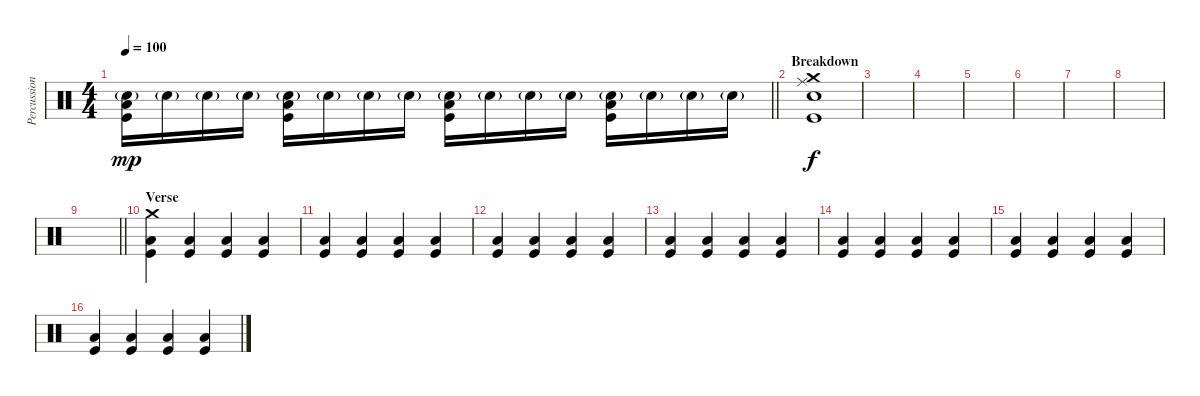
\track ("Percussion" "Percussion") {instrument percussion}
\staff {score}
\articulation defaults
\ts (4 4)
\tempo 100
\clef neutral
\barLineRight lightlight
\ks c
("Snare (hit) 2"{g} "Kick (hit)" "Low Floor Tom (hit)").16{dy mp} "Snare (hit) 2"{g}.16 "Snare (hit) 2"{g}.16 "Snare (hit) 2"{g}.16 ("Snare (hit) 2"{g} "Kick (hit)" "Low Floor Tom (hit)").16 "Snare (hit) 2"{g}.16 "Snare (hit) 2"{g}.16 "Snare (hit) 2"{g}.16 ("Snare (hit) 2"{g} "Kick (hit)" "Low Floor Tom (hit)").16 "Snare (hit) 2"{g}.16 "Snare (hit) 2"{g}.16 "Snare (hit) 2"{g}.16 ("Snare (hit) 2"{g} "Kick (hit)" "Low Floor Tom (hit)").16 "Snare (hit) 2"{g}.16 "Snare (hit) 2"{g}.16 "Snare (hit) 2"{g}.16 |
\section ("" "Breakdown")
("Snare (hit) 2" "Kick (hit)" "Crash medium (hit)" "Ride (middle)").1{dy f} |
|
|
|
|
|
|
\barLineRight lightlight
|
\section ("" "Verse")
("Kick (hit)" "Low Floor Tom (hit)" "Crash medium (hit)").4 ("Kick (hit)" "Low Floor Tom (hit)").4 ("Kick (hit)" "Low Floor Tom (hit)").4 ("Kick (hit)" "Low Floor Tom (hit)").4 |
("Kick (hit)" "Low Floor Tom (hit)").4 ("Kick (hit)" "Low Floor Tom (hit)").4 ("Kick (hit)" "Low Floor Tom (hit)").4 ("Kick (hit)" "Low Floor Tom (hit)").4 |
("Kick (hit)" "Low Floor Tom (hit)").4 ("Kick (hit)" "Low Floor Tom (hit)").4 ("Kick (hit)" "Low Floor Tom (hit)").4 ("Kick (hit)" "Low Floor Tom (hit)").4 |
("Kick (hit)" "Low Floor Tom (hit)").4 ("Kick (hit)" "Low Floor Tom (hit)").4 ("Kick (hit)" "Low Floor Tom (hit)").4 ("Kick (hit)" "Low Floor Tom (hit)").4 |
("Kick (hit)" "Low Floor Tom (hit)").4 ("Kick (hit)" "Low Floor Tom (hit)").4 ("Kick (hit)" "Low Floor Tom (hit)").4 ("Kick (hit)" "Low Floor Tom (hit)").4 |
("Kick (hit)" "Low Floor Tom (hit)").4 ("Kick (hit)" "Low Floor Tom (hit)").4 ("Kick (hit)" "Low Floor Tom (hit)").4 ("Kick (hit)" "Low Floor Tom (hit)").4 |
("Kick (hit)" "Low Floor Tom (hit)").4 ("Kick (hit)" "Low Floor Tom (hit)").4 ("Kick (hit)" "Low Floor Tom (hit)").4 ("Kick (hit)" "Low Floor Tom (hit)").4
